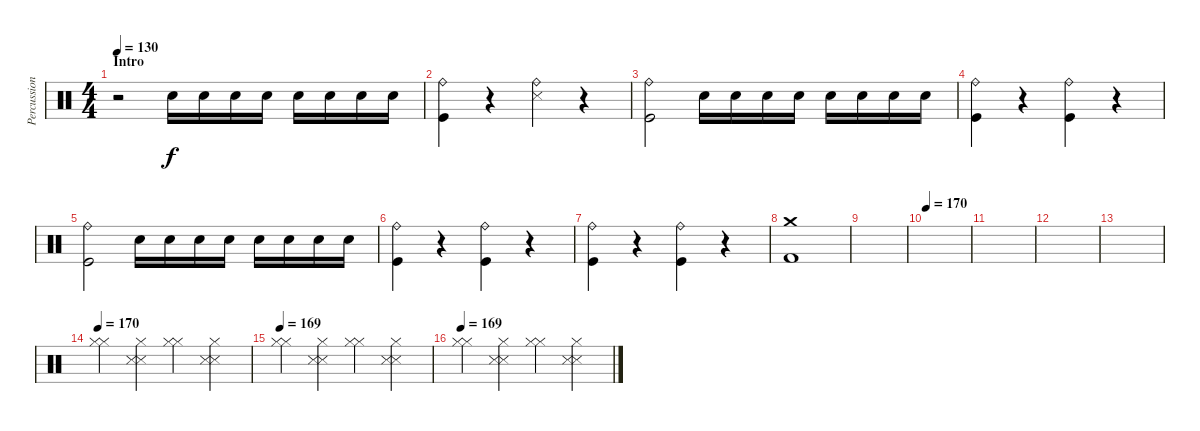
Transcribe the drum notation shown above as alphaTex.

\track ("Percussion" "Percussion") {instrument percussion}
\staff {score}
\articulation defaults
\ts (4 4)
\section ("" "Intro")
\tempo 130
\clef neutral
\ks c
r.2{dy f} "Snare (hit) 2".16{volume 0} "Snare (hit) 2".16{volume 11} "Snare (hit) 2".16 "Snare (hit) 2".16 "Snare (hit) 2".16 "Snare (hit) 2".16 "Snare (hit) 2".16 "Snare (hit) 2".16 |
("Ride (bell)" "Kick (hit)").4 r.4 ("Ride (bell)" "Snare (side stick) 3").4 r.4 |
("Ride (bell)" "Kick (hit)").2 "Snare (hit) 2".16{volume 0} "Snare (hit) 2".16{volume 11} "Snare (hit) 2".16 "Snare (hit) 2".16 "Snare (hit) 2".16 "Snare (hit) 2".16 "Snare (hit) 2".16 "Snare (hit) 2".16 |
("Ride (bell)" "Kick (hit)").4 r.4 ("Ride (bell)" "Kick (hit)").4 r.4 |
("Ride (bell)" "Kick (hit)").2 "Snare (hit) 2".16{volume 0} "Snare (hit) 2".16{volume 11} "Snare (hit) 2".16 "Snare (hit) 2".16 "Snare (hit) 2".16 "Snare (hit) 2".16 "Snare (hit) 2".16 "Snare (hit) 2".16 |
("Ride (bell)" "Kick (hit)").4 r.4 ("Ride (bell)" "Kick (hit)").4 r.4 |
("Ride (bell)" "Kick (hit)").4 r.4 ("Ride (bell)" "Kick (hit)").4 r.4 |
("Crash medium (hit)" "Kick (hit) 2").1 |
|
\tempo 170
|
|
|
|
\tempo 169
\tempo 170
("Hi-Hat (closed)" "Hi-Hat (closed)").4 ("Hi-Hat (closed)" "Snare (side stick) 3" "Snare (side stick) 3").4 ("Hi-Hat (closed)" "Hi-Hat (closed)").4 ("Hi-Hat (closed)" "Snare (side stick) 3" "Snare (side stick) 3").4 |
\tempo 169
("Hi-Hat (closed)" "Hi-Hat (closed)").4 ("Hi-Hat (closed)" "Snare (side stick) 3" "Snare (side stick) 3").4 ("Hi-Hat (closed)" "Hi-Hat (closed)").4 ("Hi-Hat (closed)" "Snare (side stick) 3" "Snare (side stick) 3").4 |
\tempo 169
("Hi-Hat (closed)" "Hi-Hat (closed)").4 ("Hi-Hat (closed)" "Snare (side stick) 3" "Snare (side stick) 3").4 ("Hi-Hat (closed)" "Hi-Hat (closed)").4 ("Hi-Hat (closed)" "Snare (side stick) 3" "Snare (side stick) 3").4
